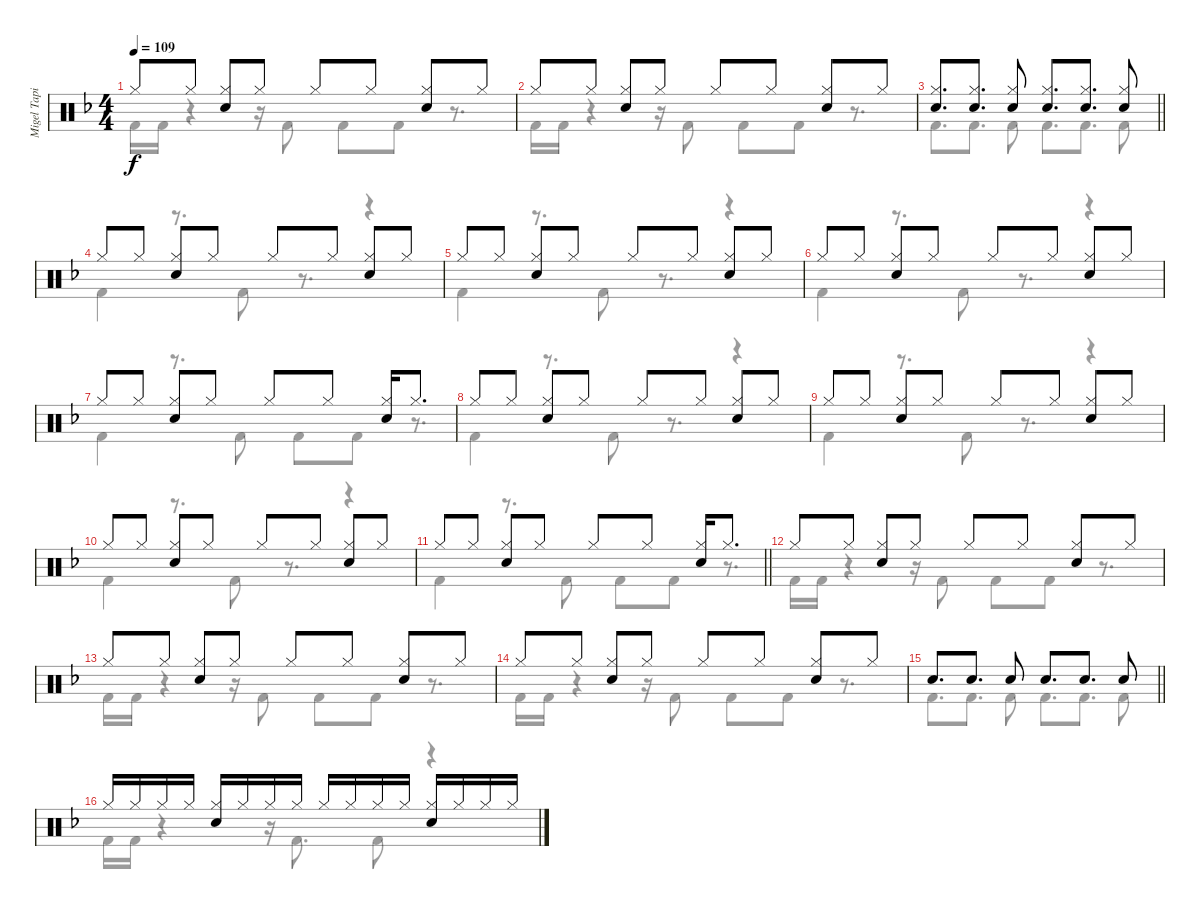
\track ("Migel Tapia (Batería)" "Migel Tapi") {instrument percussion}
\staff {score}
\articulation defaults
\voice
\ts (4 4)
\tempo 109
\clef neutral
\ks dminor "Hi-Hat (closed)".8{dy f} "Hi-Hat (closed)".8
("Hi-Hat (closed)" "Snare (hit) 2").8 "Hi-Hat (closed)".8 "Hi-Hat (closed)".8 "Hi-Hat (closed)".8 ("Hi-Hat (closed)" "Snare (hit) 2").8 "Hi-Hat (closed)".8 |
"Hi-Hat (closed)".8 "Hi-Hat (closed)".8 ("Hi-Hat (closed)" "Snare (hit) 2").8 "Hi-Hat (closed)".8 "Hi-Hat (closed)".8 "Hi-Hat (closed)".8 ("Hi-Hat (closed)" "Snare (hit) 2").8 "Hi-Hat (closed)".8 |
\barLineRight lightlight
("Hi-Hat (closed)" "Snare (hit) 2").8{d} ("Hi-Hat (closed)" "Snare (hit) 2").8{d} ("Hi-Hat (closed)" "Snare (hit) 2").8 ("Hi-Hat (closed)" "Snare (hit) 2").8{d} ("Hi-Hat (closed)" "Snare (hit) 2").8{d} ("Hi-Hat (closed)" "Snare (hit) 2").8 |
"Hi-Hat (closed)".8 "Hi-Hat (closed)".8 ("Hi-Hat (closed)" "Snare (hit) 2").8 "Hi-Hat (closed)".8 "Hi-Hat (closed)".8 "Hi-Hat (closed)".8 ("Hi-Hat (closed)" "Snare (hit) 2").8 "Hi-Hat (closed)".8 |
"Hi-Hat (closed)".8 "Hi-Hat (closed)".8 ("Hi-Hat (closed)" "Snare (hit) 2").8 "Hi-Hat (closed)".8 "Hi-Hat (closed)".8 "Hi-Hat (closed)".8 ("Hi-Hat (closed)" "Snare (hit) 2").8 "Hi-Hat (closed)".8 |
"Hi-Hat (closed)".8 "Hi-Hat (closed)".8 ("Hi-Hat (closed)" "Snare (hit) 2").8 "Hi-Hat (closed)".8 "Hi-Hat (closed)".8 "Hi-Hat (closed)".8 ("Hi-Hat (closed)" "Snare (hit) 2").8 "Hi-Hat (closed)".8 |
"Hi-Hat (closed)".8 "Hi-Hat (closed)".8 ("Hi-Hat (closed)" "Snare (hit) 2").8 "Hi-Hat (closed)".8 "Hi-Hat (closed)".8 "Hi-Hat (closed)".8 ("Hi-Hat (closed)" "Snare (hit) 2").16 "Hi-Hat (closed)".8{d} |
"Hi-Hat (closed)".8 "Hi-Hat (closed)".8 ("Hi-Hat (closed)" "Snare (hit) 2").8 "Hi-Hat (closed)".8 "Hi-Hat (closed)".8 "Hi-Hat (closed)".8 ("Hi-Hat (closed)" "Snare (hit) 2").8 "Hi-Hat (closed)".8 |
"Hi-Hat (closed)".8 "Hi-Hat (closed)".8 ("Hi-Hat (closed)" "Snare (hit) 2").8 "Hi-Hat (closed)".8 "Hi-Hat (closed)".8 "Hi-Hat (closed)".8 ("Hi-Hat (closed)" "Snare (hit) 2").8 "Hi-Hat (closed)".8 |
"Hi-Hat (closed)".8 "Hi-Hat (closed)".8 ("Hi-Hat (closed)" "Snare (hit) 2").8 "Hi-Hat (closed)".8 "Hi-Hat (closed)".8 "Hi-Hat (closed)".8 ("Hi-Hat (closed)" "Snare (hit) 2").8 "Hi-Hat (closed)".8 |
\barLineRight lightlight "Hi-Hat (closed)".8 "Hi-Hat (closed)".8
("Hi-Hat (closed)" "Snare (hit) 2").8 "Hi-Hat (closed)".8 "Hi-Hat (closed)".8 "Hi-Hat (closed)".8 ("Hi-Hat (closed)" "Snare (hit) 2").16 "Hi-Hat (closed)".8{d} |
"Hi-Hat (closed)".8 "Hi-Hat (closed)".8 ("Hi-Hat (closed)" "Snare (hit) 2").8 "Hi-Hat (closed)".8 "Hi-Hat (closed)".8 "Hi-Hat (closed)".8 ("Hi-Hat (closed)" "Snare (hit) 2").8 "Hi-Hat (closed)".8 |
"Hi-Hat (closed)".8 "Hi-Hat (closed)".8 ("Hi-Hat (closed)" "Snare (hit) 2").8 "Hi-Hat (closed)".8 "Hi-Hat (closed)".8 "Hi-Hat (closed)".8 ("Hi-Hat (closed)" "Snare (hit) 2").8 "Hi-Hat (closed)".8 |
"Hi-Hat (closed)".8 "Hi-Hat (closed)".8 ("Hi-Hat (closed)" "Snare (hit) 2").8 "Hi-Hat (closed)".8 "Hi-Hat (closed)".8 "Hi-Hat (closed)".8 ("Hi-Hat (closed)" "Snare (hit) 2").8 "Hi-Hat (closed)".8 |
\barLineRight lightlight "Snare (hit) 2".8{d} "Snare (hit) 2".8{d} "Snare (hit) 2".8 "Snare (hit) 2".8{d} "Snare (hit) 2".8{d} "Snare (hit) 2".8
|
"Hi-Hat (closed)".16 "Hi-Hat (closed)".16 "Hi-Hat (closed)".16 "Hi-Hat (closed)".16 ("Hi-Hat (closed)" "Snare (hit) 2").16 "Hi-Hat (closed)".16 "Hi-Hat (closed)".16 "Hi-Hat (closed)".16 "Hi-Hat (closed)".16 "Hi-Hat (closed)".16 "Hi-Hat (closed)".16 "Hi-Hat (closed)".16 ("Hi-Hat (closed)" "Snare (hit) 2").16 "Hi-Hat (closed)".16 "Hi-Hat (closed)".16 "Hi-Hat (closed)".16
\voice
\clef neutral
\ottava regular
\simile none
\ks dminor "Kick (hit) 2".16{dy f} "Kick (hit) 2".16
r.4 r.16 "Kick (hit) 2".8 "Kick (hit) 2".8 "Kick (hit) 2".8 r.8{d} |
"Kick (hit) 2".16 "Kick (hit) 2".16 r.4 r.16 "Kick (hit) 2".8 "Kick (hit) 2".8 "Kick (hit) 2".8 r.8{d} |
\barLineRight lightlight "Kick (hit) 2".8{d} "Kick (hit) 2".8{d} "Kick (hit) 2".8 "Kick (hit) 2".8{d} "Kick (hit) 2".8{d} "Kick (hit) 2".8
|
"Kick (hit) 2".4 r.8{d} "Kick (hit) 2".8 r.8{d} r.4 |
"Kick (hit) 2".4 r.8{d} "Kick (hit) 2".8 r.8{d} r.4 |
"Kick (hit) 2".4 r.8{d} "Kick (hit) 2".8 r.8{d} r.4 |
"Kick (hit) 2".4 r.8{d} "Kick (hit) 2".8 "Kick (hit) 2".8 "Kick (hit) 2".8 r.8{d} |
"Kick (hit) 2".4 r.8{d} "Kick (hit) 2".8 r.8{d} r.4 |
"Kick (hit) 2".4 r.8{d} "Kick (hit) 2".8 r.8{d} r.4 |
"Kick (hit) 2".4 r.8{d} "Kick (hit) 2".8 r.8{d} r.4 |
\barLineRight lightlight "Kick (hit) 2".4
r.8{d} "Kick (hit) 2".8 "Kick (hit) 2".8 "Kick (hit) 2".8 r.8{d} |
"Kick (hit) 2".16 "Kick (hit) 2".16 r.4 r.16 "Kick (hit) 2".8 "Kick (hit) 2".8 "Kick (hit) 2".8 r.8{d} |
"Kick (hit) 2".16 "Kick (hit) 2".16 r.4 r.16 "Kick (hit) 2".8 "Kick (hit) 2".8 "Kick (hit) 2".8 r.8{d} |
"Kick (hit) 2".16 "Kick (hit) 2".16 r.4 r.16 "Kick (hit) 2".8 "Kick (hit) 2".8 "Kick (hit) 2".8 r.8{d} |
\barLineRight lightlight "Kick (hit) 2".8{d} "Kick (hit) 2".8{d} "Kick (hit) 2".8 "Kick (hit) 2".8{d} "Kick (hit) 2".8{d} "Kick (hit) 2".8
|
"Kick (hit) 2".16 "Kick (hit) 2".16 r.4 r.16 "Kick (hit) 2".8{d} "Kick (hit) 2".8 r.4
